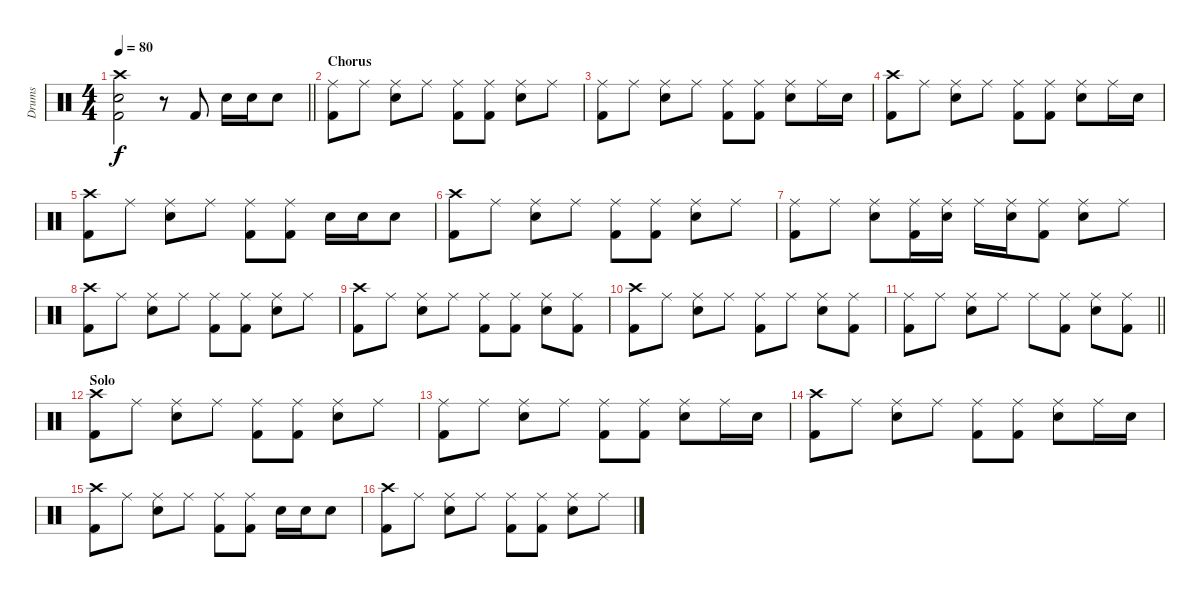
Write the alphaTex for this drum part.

\track ("Drums" "Drums") {instrument percussion}
\staff {score}
\articulation defaults
\ts (4 4)
\tempo 80
\clef neutral
\barLineRight lightlight
\ks c
("Crash high (hit)" "Electric Snare (hit)" "Kick (hit) 2").2{dy f} r.8 "Kick (hit) 2".8 "Electric Snare (hit)".16 "Electric Snare (hit)".16 "Electric Snare (hit)".8 |
\section ("" "Chorus")
("Ride (middle)" "Kick (hit) 2").8 "Ride (middle)".8 ("Ride (middle)" "Electric Snare (hit)").8 "Ride (middle)".8 ("Ride (middle)" "Kick (hit) 2").8 ("Ride (middle)" "Kick (hit) 2").8 ("Ride (middle)" "Electric Snare (hit)").8 "Ride (middle)".8 |
("Ride (middle)" "Kick (hit) 2").8 "Ride (middle)".8 ("Ride (middle)" "Electric Snare (hit)").8 "Ride (middle)".8 ("Ride (middle)" "Kick (hit) 2").8 ("Ride (middle)" "Kick (hit) 2").8 ("Ride (middle)" "Electric Snare (hit)").8 "Ride (middle)".16 "Electric Snare (hit)".16 |
("Crash high (hit)" "Kick (hit) 2").8 "Ride (middle)".8 ("Ride (middle)" "Electric Snare (hit)").8 "Ride (middle)".8 ("Ride (middle)" "Kick (hit) 2").8 ("Ride (middle)" "Kick (hit) 2").8 ("Ride (middle)" "Electric Snare (hit)").8 "Ride (middle)".16 "Electric Snare (hit)".16 |
("Crash high (hit)" "Kick (hit) 2").8 "Ride (middle)".8 ("Ride (middle)" "Electric Snare (hit)").8 "Ride (middle)".8 ("Ride (middle)" "Kick (hit) 2").8 ("Ride (middle)" "Kick (hit) 2").8 "Electric Snare (hit)".16 "Electric Snare (hit)".16 "Electric Snare (hit)".8 |
("Crash high (hit)" "Kick (hit) 2").8 "Ride (middle)".8 ("Ride (middle)" "Electric Snare (hit)").8 "Ride (middle)".8 ("Ride (middle)" "Kick (hit) 2").8 ("Ride (middle)" "Kick (hit) 2").8 ("Ride (middle)" "Electric Snare (hit)").8 "Ride (middle)".8 |
("Ride (middle)" "Kick (hit) 2").8 "Ride (middle)".8 ("Ride (middle)" "Electric Snare (hit)").8 ("Ride (middle)" "Kick (hit) 2").16 ("Ride (middle)" "Electric Snare (hit)").16 "Ride (middle)".16 ("Ride (middle)" "Electric Snare (hit)").16 ("Ride (middle)" "Kick (hit) 2").8 ("Ride (middle)" "Electric Snare (hit)").8 "Ride (middle)".8 |
("Crash high (hit)" "Kick (hit) 2").8 "Ride (middle)".8 ("Ride (middle)" "Electric Snare (hit)").8 "Ride (middle)".8 ("Ride (middle)" "Kick (hit) 2").8 ("Ride (middle)" "Kick (hit) 2").8 ("Ride (middle)" "Electric Snare (hit)").8 "Ride (middle)".8 |
("Crash high (hit)" "Kick (hit) 2").8 "Ride (middle)".8 ("Ride (middle)" "Electric Snare (hit)").8 "Ride (middle)".8 ("Ride (middle)" "Kick (hit) 2").8 ("Ride (middle)" "Kick (hit) 2").8 ("Ride (middle)" "Electric Snare (hit)").8 ("Ride (middle)" "Kick (hit) 2").8 |
("Crash high (hit)" "Kick (hit) 2").8 "Ride (middle)".8 ("Ride (middle)" "Electric Snare (hit)").8 "Ride (middle)".8 ("Ride (middle)" "Kick (hit) 2").8 "Ride (middle)".8 ("Ride (middle)" "Electric Snare (hit)").8 ("Ride (middle)" "Kick (hit) 2").8 |
\barLineRight lightlight
("Ride (middle)" "Kick (hit) 2").8 "Ride (middle)".8 ("Ride (middle)" "Electric Snare (hit)").8 "Ride (middle)".8 "Ride (middle)".8 ("Ride (middle)" "Kick (hit) 2").8 ("Ride (middle)" "Electric Snare (hit)").8 ("Ride (middle)" "Kick (hit) 2").8 |
\section ("" "Solo")
("Crash high (hit)" "Kick (hit) 2").8 "Ride (middle)".8 ("Ride (middle)" "Electric Snare (hit)").8 "Ride (middle)".8 ("Ride (middle)" "Kick (hit) 2").8 ("Ride (middle)" "Kick (hit) 2").8 ("Ride (middle)" "Electric Snare (hit)").8 "Ride (middle)".8 |
("Ride (middle)" "Kick (hit) 2").8 "Ride (middle)".8 ("Ride (middle)" "Electric Snare (hit)").8 "Ride (middle)".8 ("Ride (middle)" "Kick (hit) 2").8 ("Ride (middle)" "Kick (hit) 2").8 ("Ride (middle)" "Electric Snare (hit)").8 "Ride (middle)".16 "Electric Snare (hit)".16 |
("Crash high (hit)" "Kick (hit) 2").8 "Ride (middle)".8 ("Ride (middle)" "Electric Snare (hit)").8 "Ride (middle)".8 ("Ride (middle)" "Kick (hit) 2").8 ("Ride (middle)" "Kick (hit) 2").8 ("Ride (middle)" "Electric Snare (hit)").8 "Ride (middle)".16 "Electric Snare (hit)".16 |
("Crash high (hit)" "Kick (hit) 2").8 "Ride (middle)".8 ("Ride (middle)" "Electric Snare (hit)").8 "Ride (middle)".8 ("Ride (middle)" "Kick (hit) 2").8 ("Ride (middle)" "Kick (hit) 2").8 "Electric Snare (hit)".16 "Electric Snare (hit)".16 "Electric Snare (hit)".8 |
("Crash high (hit)" "Kick (hit) 2").8 "Ride (middle)".8 ("Ride (middle)" "Electric Snare (hit)").8 "Ride (middle)".8 ("Ride (middle)" "Kick (hit) 2").8 ("Ride (middle)" "Kick (hit) 2").8 ("Ride (middle)" "Electric Snare (hit)").8 "Ride (middle)".8
